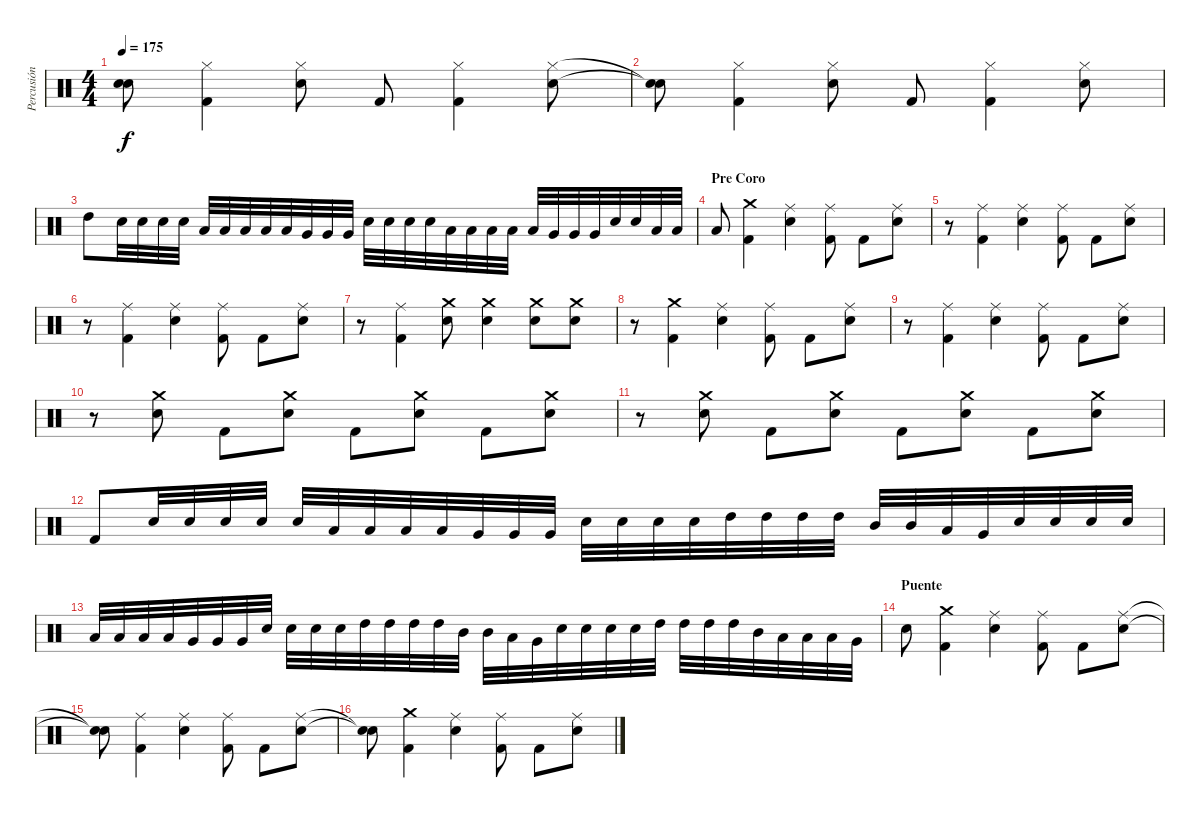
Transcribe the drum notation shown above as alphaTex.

\track ("Percusión" "Percusión") {instrument percussion}
\staff {score}
\articulation defaults
\ts (4 4)
\tempo 175
\clef neutral
\ks c
("Snare (hit)"{t} "Snare (hit)"{t}).8{dy f} ("Hi-Hat (closed)" "Kick (hit) 2").4 ("Snare (hit) 2" "Hi-Hat (closed)").8 "Kick (hit) 2".8 ("Kick (hit) 2" "Hi-Hat (closed)").4 ("Snare (hit) 2" "Hi-Hat (closed)").8 |
("Snare (hit)"{t} "Snare (hit)"{t}).8 ("Hi-Hat (closed)" "Kick (hit) 2").4 ("Snare (hit) 2" "Hi-Hat (closed)").8 "Kick (hit) 2".8 ("Kick (hit) 2" "Hi-Hat (closed)").4 ("Snare (hit) 2" "Hi-Hat (closed)").8 |
"High Tom (hit)".8 "Snare (hit) 2".32 "Snare (hit) 2".32 "Snare (hit) 2".32 "Snare (hit) 2".32 "Low Tom (hit)".32 "Low Tom (hit)".32 "Low Tom (hit)".32 "Low Tom (hit)".32 "Low Tom (hit)".32 "Very Low Tom (hit)".32 "Very Low Tom (hit)".32 "Very Low Tom (hit)".32 "Snare (hit) 2".32 "Snare (hit) 2".32 "Snare (hit) 2".32 "Snare (hit) 2".32 "Low Tom (hit)".32 "Low Tom (hit)".32 "Low Tom (hit)".32 "Low Tom (hit)".32 "Low Tom (hit)".32 "Very Low Tom (hit)".32 "Very Low Tom (hit)".32 "Very Low Tom (hit)".32 "Snare (hit) 2".32 "Snare (hit) 2".32 "Low Tom (hit)".32 "Low Tom (hit)".32 |
\section ("" "Pre Coro")
"Low Tom (hit)".8 ("Kick (hit) 2" "Crash medium (hit)").4 ("Ride (middle)" "Snare (hit) 2").4 ("Kick (hit) 2" "Ride (middle)").8 "Kick (hit) 2".8 ("Ride (middle)" "Snare (hit) 2").8 |
r.8 ("Kick (hit) 2" "Ride (middle)").4 ("Ride (middle)" "Snare (hit) 2").4 ("Kick (hit) 2" "Ride (middle)").8 "Kick (hit) 2".8 ("Ride (middle)" "Snare (hit) 2").8 |
r.8 ("Kick (hit) 2" "Ride (middle)").4 ("Ride (middle)" "Snare (hit) 2").4 ("Kick (hit) 2" "Ride (middle)").8 "Kick (hit) 2".8 ("Ride (middle)" "Snare (hit) 2").8 |
r.8 ("Kick (hit) 2" "Ride (middle)").4 ("Crash medium (hit)" "Snare (hit) 2").8 ("Crash medium (hit)" "Snare (hit) 2").4 ("Crash medium (hit)" "Snare (hit) 2").8 ("Crash medium (hit)" "Snare (hit) 2").8 |
r.8 ("Kick (hit) 2" "Crash medium (hit)").4 ("Ride (middle)" "Snare (hit) 2").4 ("Kick (hit) 2" "Ride (middle)").8 "Kick (hit) 2".8 ("Ride (middle)" "Snare (hit) 2").8 |
r.8 ("Kick (hit) 2" "Ride (middle)").4 ("Ride (middle)" "Snare (hit) 2").4 ("Kick (hit) 2" "Ride (middle)").8 "Kick (hit) 2".8 ("Ride (middle)" "Snare (hit) 2").8 |
r.8 ("Crash medium (hit)" "Snare (hit) 2").8 "Kick (hit) 2".8 ("Crash medium (hit)" "Snare (hit) 2").8 "Kick (hit) 2".8 ("Crash medium (hit)" "Snare (hit) 2").8 "Kick (hit) 2".8 ("Crash medium (hit)" "Snare (hit) 2").8 |
r.8 ("Crash medium (hit)" "Snare (hit) 2").8 "Kick (hit) 2".8 ("Crash medium (hit)" "Snare (hit) 2").8 "Kick (hit) 2".8 ("Crash medium (hit)" "Snare (hit) 2").8 "Kick (hit) 2".8 ("Crash medium (hit)" "Snare (hit) 2").8 |
"Kick (hit) 2".8 "Snare (hit) 2".32 "Snare (hit) 2".32 "Snare (hit) 2".32 "Snare (hit) 2".32 "Snare (hit) 2".32 "Low Tom (hit)".32 "Low Tom (hit)".32 "Low Tom (hit)".32 "Low Tom (hit)".32 "Very Low Tom (hit)".32 "Very Low Tom (hit)".32 "Very Low Tom (hit)".32 "Snare (hit) 2".32 "Snare (hit) 2".32 "Snare (hit) 2".32 "Snare (hit) 2".32 "High Tom (hit)".32 "High Tom (hit)".32 "High Tom (hit)".32 "High Tom (hit)".32 "Mid Tom (hit)".32 "Mid Tom (hit)".32 "Low Tom (hit)".32 "Very Low Tom (hit)".32 "Snare (hit) 2".32 "Snare (hit) 2".32 "Snare (hit) 2".32 "Snare (hit) 2".32 |
"Low Tom (hit)".32 "Low Tom (hit)".32 "Low Tom (hit)".32 "Low Tom (hit)".32 "Very Low Tom (hit)".32 "Very Low Tom (hit)".32 "Very Low Tom (hit)".32 "Snare (hit) 2".32 "Snare (hit) 2".32 "Snare (hit) 2".32 "Snare (hit) 2".32 "High Tom (hit)".32 "High Tom (hit)".32 "High Tom (hit)".32 "High Tom (hit)".32 "Mid Tom (hit)".32 "Mid Tom (hit)".32 "Low Tom (hit)".32 "Very Low Tom (hit)".32 "Snare (hit) 2".32 "Snare (hit) 2".32 "Snare (hit) 2".32 "Snare (hit) 2".32 "High Tom (hit)".32 "High Tom (hit)".32 "High Tom (hit)".32 "High Tom (hit)".32 "Mid Tom (hit)".32 "Low Tom (hit)".32 "Low Tom (hit)".32 "Low Tom (hit)".32 "Very Low Tom (hit)".32 |
\section ("" "Puente")
"Snare (hit) 2".8 ("Crash medium (hit)" "Kick (hit) 2").4 ("Snare (hit) 2" "Ride (middle)").4 ("Ride (middle)" "Kick (hit) 2").8 "Kick (hit) 2".8 ("Ride (middle)" "Snare (hit) 2").8 |
("Snare (hit)"{t} "Snare (hit) 2"{t}).8 ("Ride (middle)" "Kick (hit) 2").4 ("Snare (hit) 2" "Ride (middle)").4 ("Ride (middle)" "Kick (hit) 2").8 "Kick (hit) 2".8 ("Ride (middle)" "Snare (hit) 2").8 |
("Snare (hit)"{t} "Snare (hit) 2"{t}).8 ("Crash medium (hit)" "Kick (hit) 2").4 ("Snare (hit) 2" "Ride (middle)").4 ("Ride (middle)" "Kick (hit) 2").8 "Kick (hit) 2".8 ("Ride (middle)" "Snare (hit) 2").8
